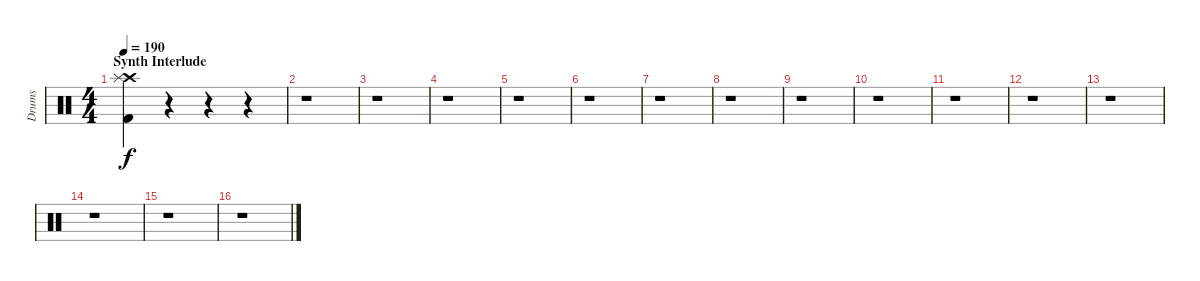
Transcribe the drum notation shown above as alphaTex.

\track ("Drums" "Drums") {instrument percussion}
\staff {score}
\articulation defaults
\ts (4 4)
\section ("" "Synth Interlude")
\tempo 190
\clef neutral
\ks c
("Crash high (hit)" "Splash (hit)" "Kick (hit) 2").4{dy f} r.4 r.4 r.4 |
r.1 |
r.1 |
r.1 |
r.1 |
r.1 |
r.1 |
r.1 |
r.1 |
r.1 |
r.1 |
r.1 |
r.1 |
r.1 |
r.1 |
r.1
